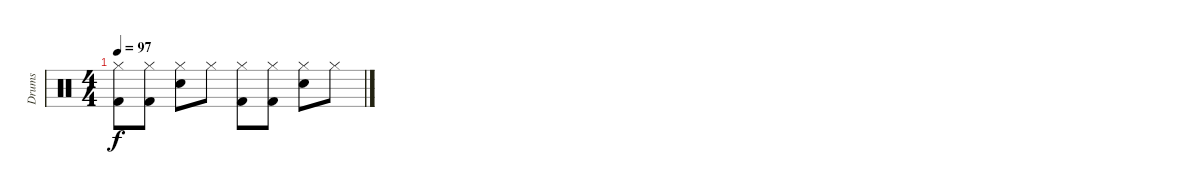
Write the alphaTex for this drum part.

\track ("Drums" "Drums") {instrument percussion}
\staff {score}
\articulation defaults
\ts (4 4)
\tempo 97
\clef neutral
\ks c
("Hi-Hat (closed)" "Kick (hit) 2").8{dy f} ("Hi-Hat (closed)" "Kick (hit) 2").8 ("Hi-Hat (closed)" "Electric Snare (hit)").8 "Hi-Hat (closed)".8 ("Hi-Hat (closed)" "Kick (hit) 2").8 ("Hi-Hat (closed)" "Kick (hit) 2").8 ("Hi-Hat (closed)" "Electric Snare (hit)").8 "Hi-Hat (closed)".8
